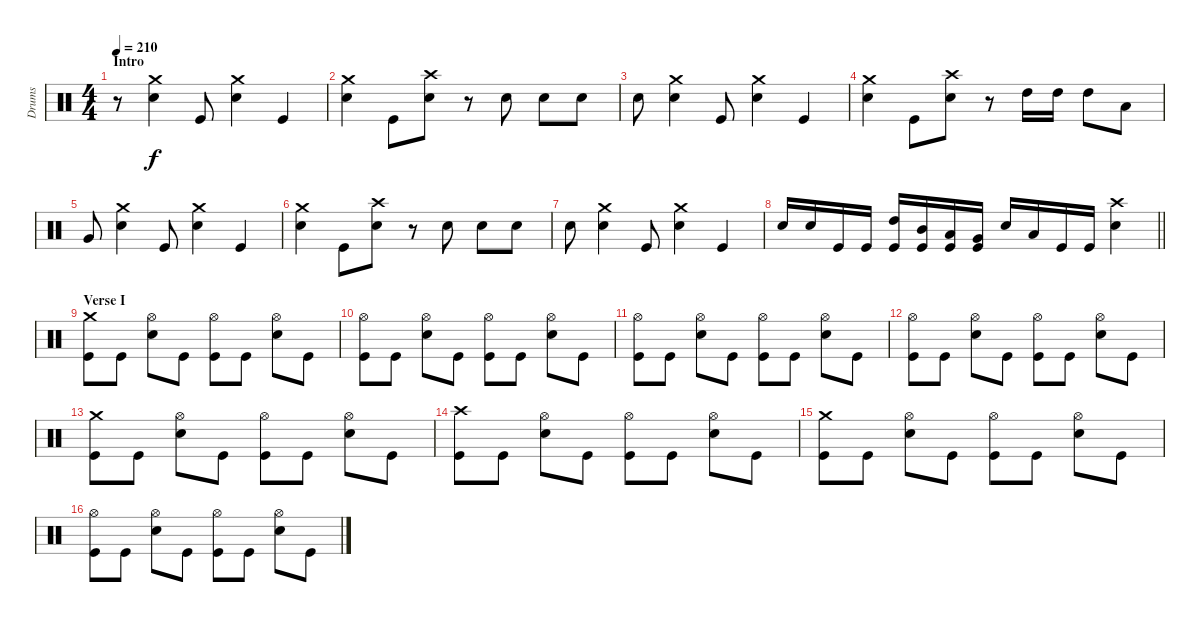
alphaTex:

\track ("Drums" "Drums") {instrument percussion}
\staff {score}
\articulation defaults
\ts (4 4)
\section ("" "Intro")
\tempo 210
\clef neutral
\ks c
r.8{dy f} ("Crash medium (hit)" "Snare (hit) 2").4 "Kick (hit)".8 ("Crash medium (hit)" "Snare (hit) 2").4 "Kick (hit)".4 |
("Crash medium (hit)" "Snare (hit) 2").4 "Kick (hit)".8 ("Crash high (hit)" "Snare (hit) 2").8 r.8 "Snare (hit) 2".8 "Snare (hit) 2".8 "Snare (hit) 2".8 |
"Snare (hit) 2".8 ("Crash medium (hit)" "Snare (hit) 2").4 "Kick (hit)".8 ("Crash medium (hit)" "Snare (hit) 2").4 "Kick (hit)".4 |
("Crash medium (hit)" "Snare (hit) 2").4 "Kick (hit)".8 ("Crash high (hit)" "Snare (hit) 2").8 r.8 "High Tom (hit)".16 "High Tom (hit)".16 "High Tom (hit)".8 "Low Tom (hit)".8 |
"Very Low Tom (hit)".8 ("Crash medium (hit)" "Snare (hit) 2").4 "Kick (hit)".8 ("Crash medium (hit)" "Snare (hit) 2").4 "Kick (hit)".4 |
("Crash medium (hit)" "Snare (hit) 2").4 "Kick (hit)".8 ("Crash high (hit)" "Snare (hit) 2").8 r.8 "Snare (hit) 2".8 "Snare (hit) 2".8 "Snare (hit) 2".8 |
"Snare (hit) 2".8 ("Crash medium (hit)" "Snare (hit) 2").4 "Kick (hit)".8 ("Crash medium (hit)" "Snare (hit) 2").4 "Kick (hit)".4 |
\barLineRight lightlight "Snare (hit) 2".16 "Snare (hit) 2".16 "Kick (hit)".16 "Kick (hit)".16
("High Tom (hit)" "Kick (hit)").16 ("Mid Tom (hit)" "Kick (hit)").16 ("Low Tom (hit)" "Kick (hit)").16 ("Very Low Tom (hit)" "Kick (hit)").16 "Snare (hit) 2".16 "Low Floor Tom (hit)".16 "Kick (hit)".16 "Kick (hit)".16 ("Crash high (hit)" "Snare (hit) 2").4 |
\section ("" "Verse I")
("Crash medium (hit)" "Kick (hit)").8 "Kick (hit)".8 ("Hi-Hat (open)" "Snare (hit) 2").8 "Kick (hit)".8 ("Hi-Hat (open)" "Kick (hit)").8 "Kick (hit)".8 ("Hi-Hat (open)" "Snare (hit) 2").8 "Kick (hit)".8 |
("Hi-Hat (open)" "Kick (hit)").8 "Kick (hit)".8 ("Hi-Hat (open)" "Snare (hit) 2").8 "Kick (hit)".8 ("Hi-Hat (open)" "Kick (hit)").8 "Kick (hit)".8 ("Hi-Hat (open)" "Snare (hit) 2").8 "Kick (hit)".8 |
("Hi-Hat (open)" "Kick (hit)").8 "Kick (hit)".8 ("Hi-Hat (open)" "Snare (hit) 2").8 "Kick (hit)".8 ("Hi-Hat (open)" "Kick (hit)").8 "Kick (hit)".8 ("Hi-Hat (open)" "Snare (hit) 2").8 "Kick (hit)".8 |
("Hi-Hat (open)" "Kick (hit)").8 "Kick (hit)".8 ("Hi-Hat (open)" "Snare (hit) 2").8 "Kick (hit)".8 ("Hi-Hat (open)" "Kick (hit)").8 "Kick (hit)".8 ("Hi-Hat (open)" "Snare (hit) 2").8 "Kick (hit)".8 |
("Crash medium (hit)" "Kick (hit)").8 "Kick (hit)".8 ("Hi-Hat (open)" "Snare (hit) 2").8 "Kick (hit)".8 ("Hi-Hat (open)" "Kick (hit)").8 "Kick (hit)".8 ("Hi-Hat (open)" "Snare (hit) 2").8 "Kick (hit)".8 |
("Crash high (hit)" "Kick (hit)").8 "Kick (hit)".8 ("Hi-Hat (open)" "Snare (hit) 2").8 "Kick (hit)".8 ("Hi-Hat (open)" "Kick (hit)").8 "Kick (hit)".8 ("Hi-Hat (open)" "Snare (hit) 2").8 "Kick (hit)".8 |
("Crash medium (hit)" "Kick (hit)").8 "Kick (hit)".8 ("Hi-Hat (open)" "Snare (hit) 2").8 "Kick (hit)".8 ("Hi-Hat (open)" "Kick (hit)").8 "Kick (hit)".8 ("Hi-Hat (open)" "Snare (hit) 2").8 "Kick (hit)".8 |
("Hi-Hat (open)" "Kick (hit)").8 "Kick (hit)".8 ("Hi-Hat (open)" "Snare (hit) 2").8 "Kick (hit)".8 ("Hi-Hat (open)" "Kick (hit)").8 "Kick (hit)".8 ("Hi-Hat (open)" "Snare (hit) 2").8 "Kick (hit)".8
